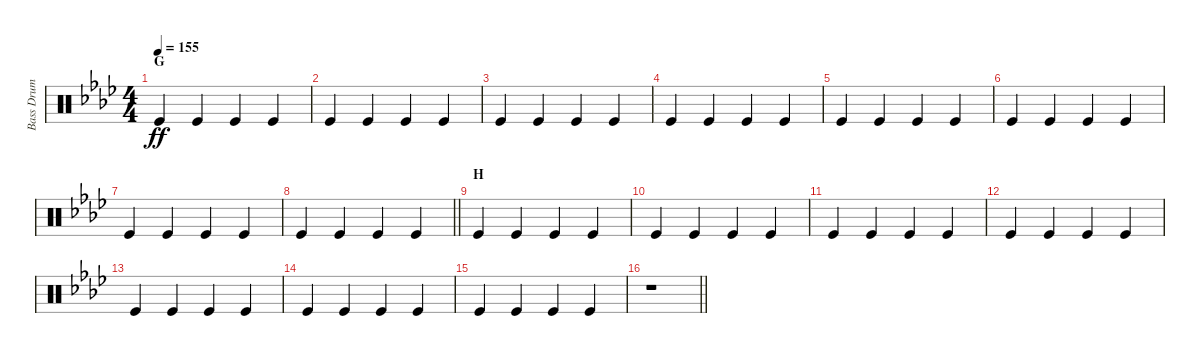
\track ("Bass Drum" "Bass Drum") {instrument percussion}
\staff {score}
\articulation defaults
\ts (4 4)
\section ("" "G")
\tempo 155
\clef neutral
\ks ab "Kick (hit)".4{dy ff} "Kick (hit)".4 "Kick (hit)".4 "Kick (hit)".4
|
"Kick (hit)".4 "Kick (hit)".4 "Kick (hit)".4 "Kick (hit)".4 |
"Kick (hit)".4 "Kick (hit)".4 "Kick (hit)".4 "Kick (hit)".4 |
"Kick (hit)".4 "Kick (hit)".4 "Kick (hit)".4 "Kick (hit)".4 |
"Kick (hit)".4 "Kick (hit)".4 "Kick (hit)".4 "Kick (hit)".4 |
"Kick (hit)".4 "Kick (hit)".4 "Kick (hit)".4 "Kick (hit)".4 |
"Kick (hit)".4 "Kick (hit)".4 "Kick (hit)".4 "Kick (hit)".4 |
\barLineRight lightlight "Kick (hit)".4 "Kick (hit)".4 "Kick (hit)".4 "Kick (hit)".4
|
\section ("" "H")
"Kick (hit)".4 "Kick (hit)".4 "Kick (hit)".4 "Kick (hit)".4 |
"Kick (hit)".4 "Kick (hit)".4 "Kick (hit)".4 "Kick (hit)".4 |
"Kick (hit)".4 "Kick (hit)".4 "Kick (hit)".4 "Kick (hit)".4 |
"Kick (hit)".4 "Kick (hit)".4 "Kick (hit)".4 "Kick (hit)".4 |
"Kick (hit)".4 "Kick (hit)".4 "Kick (hit)".4 "Kick (hit)".4 |
"Kick (hit)".4 "Kick (hit)".4 "Kick (hit)".4 "Kick (hit)".4 |
"Kick (hit)".4 "Kick (hit)".4 "Kick (hit)".4 "Kick (hit)".4 |
\barLineRight lightlight
r.1
